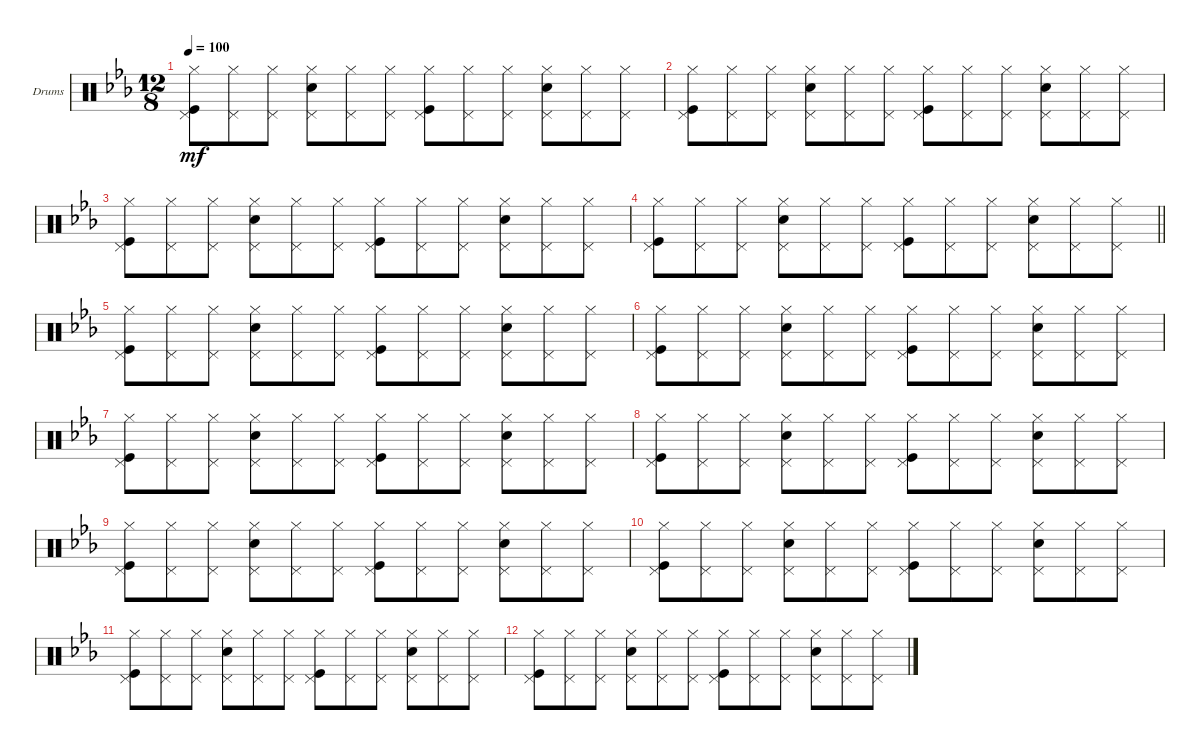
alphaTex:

\defaultSystemsLayout 4
\bracketExtendMode nobrackets
\firstSystemTrackNameOrientation horizontal
\otherSystemsTrackNameOrientation horizontal
\track ("Drumkit" "Drums") {instrument percussion}
\staff {score}
\articulation defaults
\ts (12 8)
\tempo 100
\clef neutral
\ks eb
("Pedal Hi-Hat (hit)" "Kick (hit)" "Hi-Hat (closed)").8{dy mf} ("Pedal Hi-Hat (hit)" "Hi-Hat (closed)").8 ("Pedal Hi-Hat (hit)" "Hi-Hat (closed)").8 ("Pedal Hi-Hat (hit)" "Snare (hit) 2" "Hi-Hat (closed)").8 ("Pedal Hi-Hat (hit)" "Hi-Hat (closed)").8 ("Pedal Hi-Hat (hit)" "Hi-Hat (closed)").8 ("Pedal Hi-Hat (hit)" "Kick (hit)" "Hi-Hat (closed)").8 ("Pedal Hi-Hat (hit)" "Hi-Hat (closed)").8 ("Pedal Hi-Hat (hit)" "Hi-Hat (closed)").8 ("Pedal Hi-Hat (hit)" "Snare (hit) 2" "Hi-Hat (closed)").8 ("Pedal Hi-Hat (hit)" "Hi-Hat (closed)").8 ("Pedal Hi-Hat (hit)" "Hi-Hat (closed)").8 |
("Pedal Hi-Hat (hit)" "Kick (hit)" "Hi-Hat (closed)").8 ("Pedal Hi-Hat (hit)" "Hi-Hat (closed)").8 ("Pedal Hi-Hat (hit)" "Hi-Hat (closed)").8 ("Pedal Hi-Hat (hit)" "Snare (hit) 2" "Hi-Hat (closed)").8 ("Pedal Hi-Hat (hit)" "Hi-Hat (closed)").8 ("Pedal Hi-Hat (hit)" "Hi-Hat (closed)").8 ("Pedal Hi-Hat (hit)" "Kick (hit)" "Hi-Hat (closed)").8 ("Pedal Hi-Hat (hit)" "Hi-Hat (closed)").8 ("Pedal Hi-Hat (hit)" "Hi-Hat (closed)").8 ("Pedal Hi-Hat (hit)" "Snare (hit) 2" "Hi-Hat (closed)").8 ("Pedal Hi-Hat (hit)" "Hi-Hat (closed)").8 ("Pedal Hi-Hat (hit)" "Hi-Hat (closed)").8 |
("Pedal Hi-Hat (hit)" "Kick (hit)" "Hi-Hat (closed)").8 ("Pedal Hi-Hat (hit)" "Hi-Hat (closed)").8 ("Pedal Hi-Hat (hit)" "Hi-Hat (closed)").8 ("Pedal Hi-Hat (hit)" "Snare (hit) 2" "Hi-Hat (closed)").8 ("Pedal Hi-Hat (hit)" "Hi-Hat (closed)").8 ("Pedal Hi-Hat (hit)" "Hi-Hat (closed)").8 ("Pedal Hi-Hat (hit)" "Kick (hit)" "Hi-Hat (closed)").8 ("Pedal Hi-Hat (hit)" "Hi-Hat (closed)").8 ("Pedal Hi-Hat (hit)" "Hi-Hat (closed)").8 ("Pedal Hi-Hat (hit)" "Snare (hit) 2" "Hi-Hat (closed)").8 ("Pedal Hi-Hat (hit)" "Hi-Hat (closed)").8 ("Pedal Hi-Hat (hit)" "Hi-Hat (closed)").8 |
\barLineRight lightlight
("Pedal Hi-Hat (hit)" "Kick (hit)" "Hi-Hat (closed)").8 ("Pedal Hi-Hat (hit)" "Hi-Hat (closed)").8 ("Pedal Hi-Hat (hit)" "Hi-Hat (closed)").8 ("Pedal Hi-Hat (hit)" "Snare (hit) 2" "Hi-Hat (closed)").8 ("Pedal Hi-Hat (hit)" "Hi-Hat (closed)").8 ("Pedal Hi-Hat (hit)" "Hi-Hat (closed)").8 ("Pedal Hi-Hat (hit)" "Kick (hit)" "Hi-Hat (closed)").8 ("Pedal Hi-Hat (hit)" "Hi-Hat (closed)").8 ("Pedal Hi-Hat (hit)" "Hi-Hat (closed)").8 ("Pedal Hi-Hat (hit)" "Snare (hit) 2" "Hi-Hat (closed)").8 ("Pedal Hi-Hat (hit)" "Hi-Hat (closed)").8 ("Pedal Hi-Hat (hit)" "Hi-Hat (closed)").8 |
("Pedal Hi-Hat (hit)" "Kick (hit)" "Hi-Hat (closed)").8 ("Pedal Hi-Hat (hit)" "Hi-Hat (closed)").8 ("Pedal Hi-Hat (hit)" "Hi-Hat (closed)").8 ("Pedal Hi-Hat (hit)" "Snare (hit) 2" "Hi-Hat (closed)").8 ("Pedal Hi-Hat (hit)" "Hi-Hat (closed)").8 ("Pedal Hi-Hat (hit)" "Hi-Hat (closed)").8 ("Pedal Hi-Hat (hit)" "Kick (hit)" "Hi-Hat (closed)").8 ("Pedal Hi-Hat (hit)" "Hi-Hat (closed)").8 ("Pedal Hi-Hat (hit)" "Hi-Hat (closed)").8 ("Pedal Hi-Hat (hit)" "Snare (hit) 2" "Hi-Hat (closed)").8 ("Pedal Hi-Hat (hit)" "Hi-Hat (closed)").8 ("Pedal Hi-Hat (hit)" "Hi-Hat (closed)").8 |
("Pedal Hi-Hat (hit)" "Kick (hit)" "Hi-Hat (closed)").8 ("Pedal Hi-Hat (hit)" "Hi-Hat (closed)").8 ("Pedal Hi-Hat (hit)" "Hi-Hat (closed)").8 ("Pedal Hi-Hat (hit)" "Snare (hit) 2" "Hi-Hat (closed)").8 ("Pedal Hi-Hat (hit)" "Hi-Hat (closed)").8 ("Pedal Hi-Hat (hit)" "Hi-Hat (closed)").8 ("Pedal Hi-Hat (hit)" "Kick (hit)" "Hi-Hat (closed)").8 ("Pedal Hi-Hat (hit)" "Hi-Hat (closed)").8 ("Pedal Hi-Hat (hit)" "Hi-Hat (closed)").8 ("Pedal Hi-Hat (hit)" "Snare (hit) 2" "Hi-Hat (closed)").8 ("Pedal Hi-Hat (hit)" "Hi-Hat (closed)").8 ("Pedal Hi-Hat (hit)" "Hi-Hat (closed)").8 |
("Pedal Hi-Hat (hit)" "Kick (hit)" "Hi-Hat (closed)").8 ("Pedal Hi-Hat (hit)" "Hi-Hat (closed)").8 ("Pedal Hi-Hat (hit)" "Hi-Hat (closed)").8 ("Pedal Hi-Hat (hit)" "Snare (hit) 2" "Hi-Hat (closed)").8 ("Pedal Hi-Hat (hit)" "Hi-Hat (closed)").8 ("Pedal Hi-Hat (hit)" "Hi-Hat (closed)").8 ("Pedal Hi-Hat (hit)" "Kick (hit)" "Hi-Hat (closed)").8 ("Pedal Hi-Hat (hit)" "Hi-Hat (closed)").8 ("Pedal Hi-Hat (hit)" "Hi-Hat (closed)").8 ("Pedal Hi-Hat (hit)" "Snare (hit) 2" "Hi-Hat (closed)").8 ("Pedal Hi-Hat (hit)" "Hi-Hat (closed)").8 ("Pedal Hi-Hat (hit)" "Hi-Hat (closed)").8 |
("Pedal Hi-Hat (hit)" "Kick (hit)" "Hi-Hat (closed)").8 ("Pedal Hi-Hat (hit)" "Hi-Hat (closed)").8 ("Pedal Hi-Hat (hit)" "Hi-Hat (closed)").8 ("Pedal Hi-Hat (hit)" "Snare (hit) 2" "Hi-Hat (closed)").8 ("Pedal Hi-Hat (hit)" "Hi-Hat (closed)").8 ("Pedal Hi-Hat (hit)" "Hi-Hat (closed)").8 ("Pedal Hi-Hat (hit)" "Kick (hit)" "Hi-Hat (closed)").8 ("Pedal Hi-Hat (hit)" "Hi-Hat (closed)").8 ("Pedal Hi-Hat (hit)" "Hi-Hat (closed)").8 ("Pedal Hi-Hat (hit)" "Snare (hit) 2" "Hi-Hat (closed)").8 ("Pedal Hi-Hat (hit)" "Hi-Hat (closed)").8 ("Pedal Hi-Hat (hit)" "Hi-Hat (closed)").8 |
("Pedal Hi-Hat (hit)" "Kick (hit)" "Hi-Hat (closed)").8 ("Pedal Hi-Hat (hit)" "Hi-Hat (closed)").8 ("Pedal Hi-Hat (hit)" "Hi-Hat (closed)").8 ("Pedal Hi-Hat (hit)" "Snare (hit) 2" "Hi-Hat (closed)").8 ("Pedal Hi-Hat (hit)" "Hi-Hat (closed)").8 ("Pedal Hi-Hat (hit)" "Hi-Hat (closed)").8 ("Pedal Hi-Hat (hit)" "Kick (hit)" "Hi-Hat (closed)").8 ("Pedal Hi-Hat (hit)" "Hi-Hat (closed)").8 ("Pedal Hi-Hat (hit)" "Hi-Hat (closed)").8 ("Pedal Hi-Hat (hit)" "Snare (hit) 2" "Hi-Hat (closed)").8 ("Pedal Hi-Hat (hit)" "Hi-Hat (closed)").8 ("Pedal Hi-Hat (hit)" "Hi-Hat (closed)").8 |
("Pedal Hi-Hat (hit)" "Kick (hit)" "Hi-Hat (closed)").8 ("Pedal Hi-Hat (hit)" "Hi-Hat (closed)").8 ("Pedal Hi-Hat (hit)" "Hi-Hat (closed)").8 ("Pedal Hi-Hat (hit)" "Snare (hit) 2" "Hi-Hat (closed)").8 ("Pedal Hi-Hat (hit)" "Hi-Hat (closed)").8 ("Pedal Hi-Hat (hit)" "Hi-Hat (closed)").8 ("Pedal Hi-Hat (hit)" "Kick (hit)" "Hi-Hat (closed)").8 ("Pedal Hi-Hat (hit)" "Hi-Hat (closed)").8 ("Pedal Hi-Hat (hit)" "Hi-Hat (closed)").8 ("Pedal Hi-Hat (hit)" "Snare (hit) 2" "Hi-Hat (closed)").8 ("Pedal Hi-Hat (hit)" "Hi-Hat (closed)").8 ("Pedal Hi-Hat (hit)" "Hi-Hat (closed)").8 |
("Pedal Hi-Hat (hit)" "Kick (hit)" "Hi-Hat (closed)").8 ("Pedal Hi-Hat (hit)" "Hi-Hat (closed)").8 ("Pedal Hi-Hat (hit)" "Hi-Hat (closed)").8 ("Pedal Hi-Hat (hit)" "Snare (hit) 2" "Hi-Hat (closed)").8 ("Pedal Hi-Hat (hit)" "Hi-Hat (closed)").8 ("Pedal Hi-Hat (hit)" "Hi-Hat (closed)").8 ("Pedal Hi-Hat (hit)" "Kick (hit)" "Hi-Hat (closed)").8 ("Pedal Hi-Hat (hit)" "Hi-Hat (closed)").8 ("Pedal Hi-Hat (hit)" "Hi-Hat (closed)").8 ("Pedal Hi-Hat (hit)" "Snare (hit) 2" "Hi-Hat (closed)").8 ("Pedal Hi-Hat (hit)" "Hi-Hat (closed)").8 ("Pedal Hi-Hat (hit)" "Hi-Hat (closed)").8 |
("Pedal Hi-Hat (hit)" "Kick (hit)" "Hi-Hat (closed)").8 ("Pedal Hi-Hat (hit)" "Hi-Hat (closed)").8 ("Pedal Hi-Hat (hit)" "Hi-Hat (closed)").8 ("Pedal Hi-Hat (hit)" "Snare (hit) 2" "Hi-Hat (closed)").8 ("Pedal Hi-Hat (hit)" "Hi-Hat (closed)").8 ("Pedal Hi-Hat (hit)" "Hi-Hat (closed)").8 ("Pedal Hi-Hat (hit)" "Kick (hit)" "Hi-Hat (closed)").8 ("Pedal Hi-Hat (hit)" "Hi-Hat (closed)").8 ("Pedal Hi-Hat (hit)" "Hi-Hat (closed)").8 ("Pedal Hi-Hat (hit)" "Snare (hit) 2" "Hi-Hat (closed)").8 ("Pedal Hi-Hat (hit)" "Hi-Hat (closed)").8 ("Pedal Hi-Hat (hit)" "Hi-Hat (closed)").8
